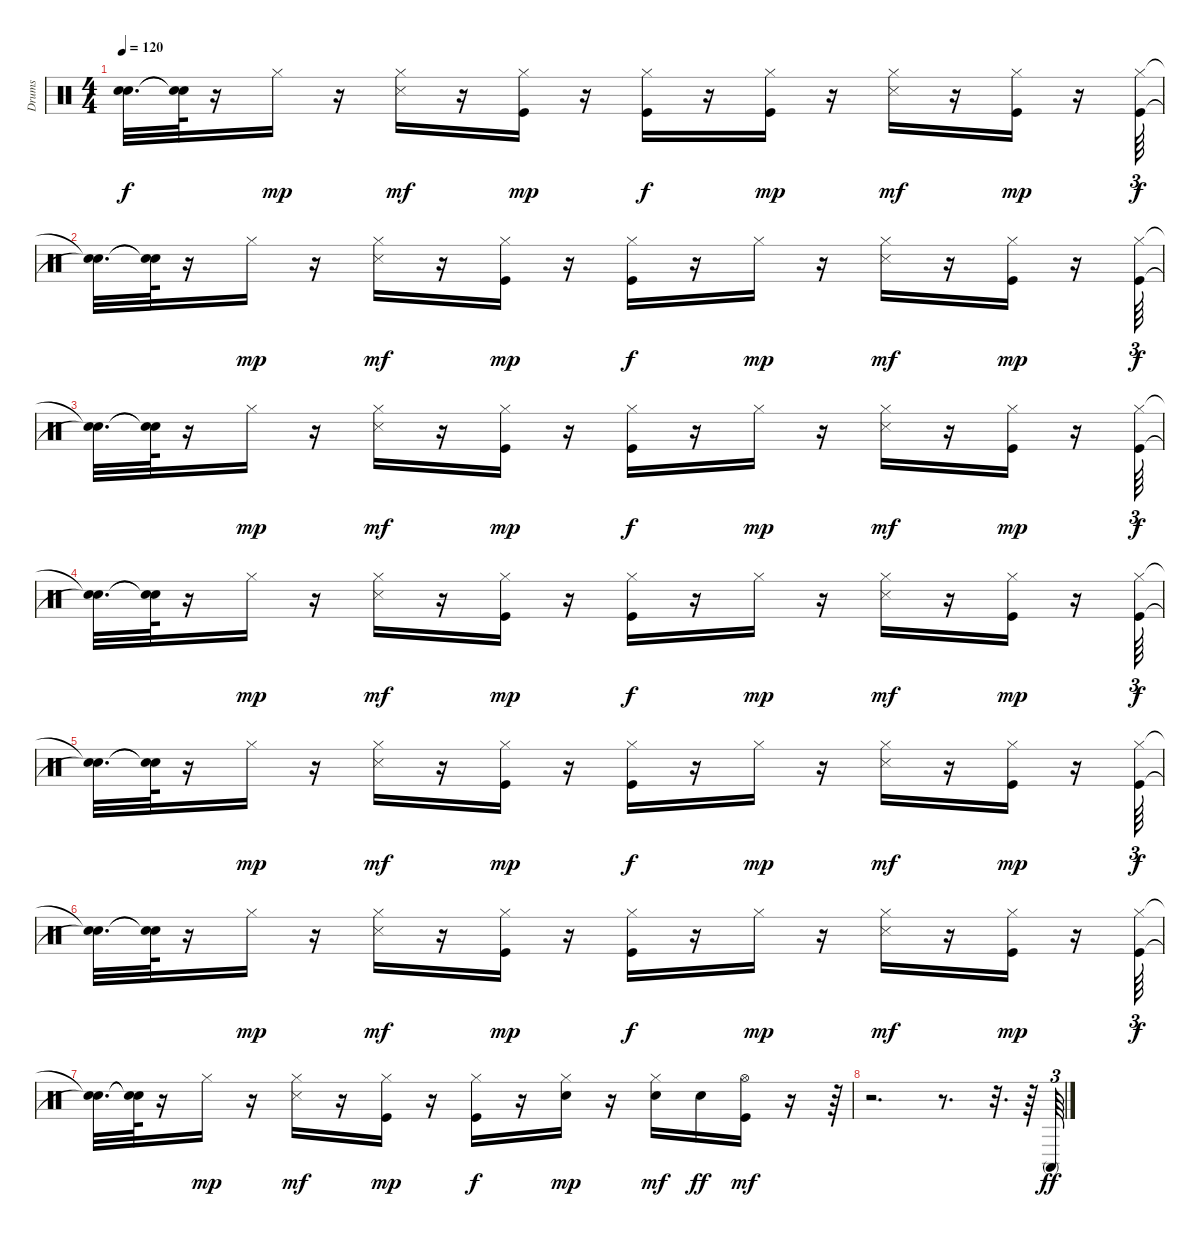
\track ("Drums" "Drums") {instrument percussion}
\staff {score}
\articulation defaults
\ts (4 4)
\tempo 120
\clef neutral
\ks c
("Snare (hit)"{t} "Snare (hit)"{t}).32{d dy f} ("Snare (hit)"{t} "Snare (hit)"{t}).64 r.16 "Hi-Hat (closed)".16{dy mp} r.16 ("Hi-Hat (closed)" "Snare (side stick) 3").16{dy mf} r.16 ("Kick (hit)" "Hi-Hat (closed)").16{dy mp} r.16 ("Kick (hit)" "Hi-Hat (closed)").16{dy f} r.16 ("Kick (hit)" "Hi-Hat (closed)").16{dy mp} r.16 ("Hi-Hat (closed)" "Snare (side stick) 3").16{dy mf} r.16 ("Kick (hit)" "Hi-Hat (closed)").16{dy mp} r.16 ("Kick (hit)" "Hi-Hat (closed)").64{tu (3 2) dy f} |
("Snare (hit)"{t} "Snare (hit)"{t}).32{d} ("Snare (hit)"{t} "Snare (hit)"{t}).64 r.16 "Hi-Hat (closed)".16{dy mp} r.16 ("Hi-Hat (closed)" "Snare (side stick) 3").16{dy mf} r.16 ("Kick (hit)" "Hi-Hat (closed)").16{dy mp} r.16 ("Kick (hit)" "Hi-Hat (closed)").16{dy f} r.16 "Hi-Hat (closed)".16{dy mp} r.16 ("Hi-Hat (closed)" "Snare (side stick) 3").16{dy mf} r.16 ("Kick (hit)" "Hi-Hat (closed)").16{dy mp} r.16 ("Kick (hit)" "Hi-Hat (closed)").64{tu (3 2) dy f} |
("Snare (hit)"{t} "Snare (hit)"{t}).32{d} ("Snare (hit)"{t} "Snare (hit)"{t}).64 r.16 "Hi-Hat (closed)".16{dy mp} r.16 ("Hi-Hat (closed)" "Snare (side stick) 3").16{dy mf} r.16 ("Kick (hit)" "Hi-Hat (closed)").16{dy mp} r.16 ("Kick (hit)" "Hi-Hat (closed)").16{dy f} r.16 "Hi-Hat (closed)".16{dy mp} r.16 ("Hi-Hat (closed)" "Snare (side stick) 3").16{dy mf} r.16 ("Kick (hit)" "Hi-Hat (closed)").16{dy mp} r.16 ("Kick (hit)" "Hi-Hat (closed)").64{tu (3 2) dy f} |
("Snare (hit)"{t} "Snare (hit)"{t}).32{d} ("Snare (hit)"{t} "Snare (hit)"{t}).64 r.16 "Hi-Hat (closed)".16{dy mp} r.16 ("Hi-Hat (closed)" "Snare (side stick) 3").16{dy mf} r.16 ("Kick (hit)" "Hi-Hat (closed)").16{dy mp} r.16 ("Kick (hit)" "Hi-Hat (closed)").16{dy f} r.16 "Hi-Hat (closed)".16{dy mp} r.16 ("Hi-Hat (closed)" "Snare (side stick) 3").16{dy mf} r.16 ("Kick (hit)" "Hi-Hat (closed)").16{dy mp} r.16 ("Kick (hit)" "Hi-Hat (closed)").64{tu (3 2) dy f} |
("Snare (hit)"{t} "Snare (hit)"{t}).32{d} ("Snare (hit)"{t} "Snare (hit)"{t}).64 r.16 "Hi-Hat (closed)".16{dy mp} r.16 ("Hi-Hat (closed)" "Snare (side stick) 3").16{dy mf} r.16 ("Kick (hit)" "Hi-Hat (closed)").16{dy mp} r.16 ("Kick (hit)" "Hi-Hat (closed)").16{dy f} r.16 "Hi-Hat (closed)".16{dy mp} r.16 ("Hi-Hat (closed)" "Snare (side stick) 3").16{dy mf} r.16 ("Kick (hit)" "Hi-Hat (closed)").16{dy mp} r.16 ("Kick (hit)" "Hi-Hat (closed)").64{tu (3 2) dy f} |
("Snare (hit)"{t} "Snare (hit)"{t}).32{d} ("Snare (hit)"{t} "Snare (hit)"{t}).64 r.16 "Hi-Hat (closed)".16{dy mp} r.16 ("Hi-Hat (closed)" "Snare (side stick) 3").16{dy mf} r.16 ("Kick (hit)" "Hi-Hat (closed)").16{dy mp} r.16 ("Kick (hit)" "Hi-Hat (closed)").16{dy f} r.16 "Hi-Hat (closed)".16{dy mp} r.16 ("Hi-Hat (closed)" "Snare (side stick) 3").16{dy mf} r.16 ("Kick (hit)" "Hi-Hat (closed)").16{dy mp} r.16 ("Kick (hit)" "Hi-Hat (closed)").64{tu (3 2) dy f} |
("Snare (hit)"{t} "Snare (hit)"{t}).32{d} ("Snare (hit)"{t} "Snare (hit)"{t}).64 r.16 "Hi-Hat (closed)".16{dy mp} r.16 ("Hi-Hat (closed)" "Snare (side stick) 3").16{dy mf} r.16 ("Kick (hit)" "Hi-Hat (closed)").16{dy mp} r.16 ("Kick (hit)" "Hi-Hat (closed)").16{dy f} r.16 ("Snare (hit) 2" "Hi-Hat (closed)").16{dy mp} r.16 ("Snare (hit) 2" "Hi-Hat (closed)").16{dy mf} "Snare (hit) 2".16{dy ff} ("Kick (hit)" "Hi-Hat (open)").16{dy mf} r.16 r.64{tu (3 2)} |
r.2{d} r.8{d} r.32{d} r.64 "Conga high (mute)".64{tu (3 2) dy ff}
